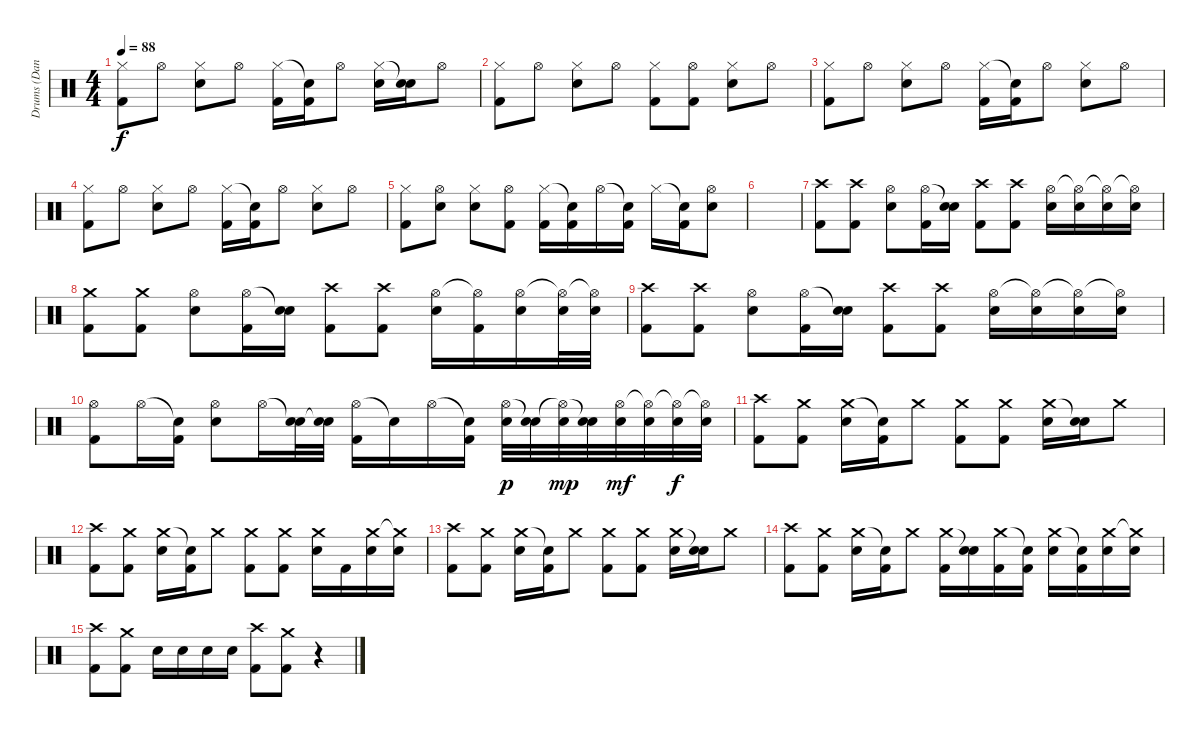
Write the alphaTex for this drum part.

\track ("Drums (Daniel)" "Drums (Dan") {instrument percussion}
\staff {score}
\articulation defaults
\ts (4 4)
\tempo 88
\clef neutral
\ks c
("Hi-Hat (closed)" "Kick (hit) 2").8{dy f} "Hi-Hat (open)".8 ("Hi-Hat (closed)" "Electric Snare (hit)").8 "Hi-Hat (open)".8 ("Hi-Hat (closed)" "Kick (hit) 2").16 ("Snare (hit)"{t} "Kick (hit) 2").16 "Hi-Hat (open)".8 ("Hi-Hat (closed)" "Electric Snare (hit)").16 ("Snare (hit)"{t} "Electric Snare (hit)").16 "Hi-Hat (open)".8 |
("Hi-Hat (closed)" "Kick (hit) 2").8 "Hi-Hat (open)".8 ("Hi-Hat (closed)" "Electric Snare (hit)").8 "Hi-Hat (open)".8 ("Hi-Hat (closed)" "Kick (hit) 2").8 ("Hi-Hat (open)" "Kick (hit) 2").8 ("Hi-Hat (closed)" "Electric Snare (hit)").8 "Hi-Hat (open)".8 |
("Hi-Hat (closed)" "Kick (hit) 2").8 "Hi-Hat (open)".8 ("Hi-Hat (closed)" "Electric Snare (hit)").8 "Hi-Hat (open)".8 ("Hi-Hat (closed)" "Kick (hit) 2").16 ("Snare (hit)"{t} "Kick (hit) 2").16 "Hi-Hat (open)".8 ("Hi-Hat (closed)" "Electric Snare (hit)").8 "Hi-Hat (open)".8 |
("Hi-Hat (closed)" "Kick (hit) 2").8 "Hi-Hat (open)".8 ("Hi-Hat (closed)" "Electric Snare (hit)").8 "Hi-Hat (open)".8 ("Hi-Hat (closed)" "Kick (hit) 2").16 ("Snare (hit)"{t} "Kick (hit) 2").16 "Hi-Hat (open)".8 ("Hi-Hat (closed)" "Electric Snare (hit)").8 "Hi-Hat (open)".8 |
("Hi-Hat (closed)" "Kick (hit) 2").8 ("Hi-Hat (open)" "Electric Snare (hit)").8 ("Hi-Hat (closed)" "Electric Snare (hit)").8 ("Hi-Hat (open)" "Kick (hit) 2").8 ("Hi-Hat (closed)" "Kick (hit) 2").16 ("Snare (hit)"{t} "Kick (hit) 2").16 "Hi-Hat (open)".16 ("Snare (hit)"{t} "Kick (hit) 2").16 "Hi-Hat (closed)".16 ("Snare (hit)"{t} "Kick (hit) 2").16 ("Hi-Hat (open)" "Electric Snare (hit)").8 |
|
("Crash high (hit)" "Kick (hit) 2").8 ("Crash high (hit)" "Kick (hit) 2").8 ("Hi-Hat (open)" "Electric Snare (hit)").8 ("Hi-Hat (open)" "Kick (hit) 2").16 ("Snare (hit)"{t} "Electric Snare (hit)").16 ("Crash high (hit)" "Kick (hit) 2").8 ("Crash high (hit)" "Kick (hit) 2").8 ("Hi-Hat (open)" "Electric Snare (hit)").16 ("Hi-Hat (open)"{t} "Electric Snare (hit)").16 ("Hi-Hat (open)"{t} "Electric Snare (hit)").16 ("Hi-Hat (open)"{t} "Electric Snare (hit)").16 |
("Crash medium (hit)" "Kick (hit) 2").8 ("Crash medium (hit)" "Kick (hit) 2").8 ("Hi-Hat (open)" "Electric Snare (hit)").8 ("Hi-Hat (open)" "Kick (hit) 2").16 ("Snare (hit)"{t} "Electric Snare (hit)").16 ("Crash high (hit)" "Kick (hit) 2").8 ("Crash high (hit)" "Kick (hit) 2").8 ("Hi-Hat (open)" "Electric Snare (hit)").16 ("Hi-Hat (open)"{t} "Kick (hit) 2").16 ("Hi-Hat (open)" "Electric Snare (hit)").16 ("Hi-Hat (open)"{t} "Electric Snare (hit)").32 ("Hi-Hat (open)"{t} "Electric Snare (hit)").32 |
("Crash high (hit)" "Kick (hit) 2").8 ("Crash high (hit)" "Kick (hit) 2").8 ("Hi-Hat (open)" "Electric Snare (hit)").8 ("Hi-Hat (open)" "Kick (hit) 2").16 ("Snare (hit)"{t} "Electric Snare (hit)").16 ("Crash high (hit)" "Kick (hit) 2").8 ("Crash high (hit)" "Kick (hit) 2").8 ("Hi-Hat (open)" "Electric Snare (hit)").16 ("Hi-Hat (open)"{t} "Electric Snare (hit)").16 ("Hi-Hat (open)"{t} "Electric Snare (hit)").16 ("Hi-Hat (open)"{t} "Electric Snare (hit)").16 |
("Hi-Hat (open)" "Kick (hit) 2").8 "Hi-Hat (open)".16 ("Snare (hit)"{t} "Kick (hit) 2").16 ("Hi-Hat (open)" "Electric Snare (hit)").8 "Hi-Hat (open)".16 ("Snare (hit)"{t} "Electric Snare (hit)").32 ("Snare (hit)"{t} "Electric Snare (hit)").32 ("Hi-Hat (open)" "Kick (hit) 2").16 "Snare (hit)"{t}.16 "Hi-Hat (open)".16 ("Snare (hit)"{t} "Kick (hit) 2").16 ("Hi-Hat (open)" "Electric Snare (hit)").32{dy p} ("Snare (hit)"{t} "Electric Snare (hit)").32 ("Hi-Hat (open)"{t} "Electric Snare (hit)").32{dy mp} ("Snare (hit)"{t} "Electric Snare (hit)").32 ("Hi-Hat (open)" "Electric Snare (hit)").32{dy mf} ("Hi-Hat (open)"{t} "Electric Snare (hit)").32 ("Hi-Hat (open)"{t} "Electric Snare (hit)").32{dy f} ("Hi-Hat (open)"{t} "Electric Snare (hit)").32 |
("Crash high (hit)" "Kick (hit) 2").8 ("Crash medium (hit)" "Kick (hit) 2").8 ("Crash medium (hit)" "Electric Snare (hit)").16 ("Snare (hit)"{t} "Kick (hit) 2").16 "Crash medium (hit)".8 ("Crash medium (hit)" "Kick (hit) 2").8 ("Crash medium (hit)" "Kick (hit) 2").8 ("Crash medium (hit)" "Electric Snare (hit)").16 ("Snare (hit)"{t} "Electric Snare (hit)").16 "Crash medium (hit)".8 |
("Crash high (hit)" "Kick (hit) 2").8 ("Crash medium (hit)" "Kick (hit) 2").8 ("Crash medium (hit)" "Electric Snare (hit)").16 ("Snare (hit)"{t} "Kick (hit) 2").16 "Crash medium (hit)".8 ("Crash medium (hit)" "Kick (hit) 2").8 ("Crash medium (hit)" "Kick (hit) 2").8 ("Crash medium (hit)" "Electric Snare (hit)").16 "Kick (hit) 2".16 ("Crash medium (hit)" "Electric Snare (hit)").16 ("Crash medium (hit)"{t} "Electric Snare (hit)").16 |
("Crash high (hit)" "Kick (hit) 2").8 ("Crash medium (hit)" "Kick (hit) 2").8 ("Crash medium (hit)" "Electric Snare (hit)").16 ("Snare (hit)"{t} "Kick (hit) 2").16 "Crash medium (hit)".8 ("Crash medium (hit)" "Kick (hit) 2").8 ("Crash medium (hit)" "Kick (hit) 2").8 ("Crash medium (hit)" "Electric Snare (hit)").16 ("Snare (hit)"{t} "Electric Snare (hit)").16 "Crash medium (hit)".8 |
("Crash high (hit)" "Kick (hit) 2").8 ("Crash medium (hit)" "Kick (hit) 2").8 ("Crash medium (hit)" "Electric Snare (hit)").16 ("Snare (hit)"{t} "Kick (hit) 2").16 "Crash medium (hit)".8 ("Crash medium (hit)" "Kick (hit) 2").16 ("Snare (hit)"{t} "Electric Snare (hit)").16 ("Crash medium (hit)" "Kick (hit) 2").16 ("Snare (hit)"{t} "Kick (hit) 2").16 ("Crash medium (hit)" "Electric Snare (hit)").16 ("Snare (hit)"{t} "Kick (hit) 2").16 ("Crash medium (hit)" "Electric Snare (hit)").16 ("Crash medium (hit)"{t} "Electric Snare (hit)").16 |
("Crash high (hit)" "Kick (hit) 2").8 ("Crash medium (hit)" "Kick (hit) 2").8 "Electric Snare (hit)".16 "Electric Snare (hit)".16 "Electric Snare (hit)".16 "Electric Snare (hit)".16 ("Crash high (hit)" "Kick (hit) 2").8 ("Crash medium (hit)" "Kick (hit) 2").8 r.4
